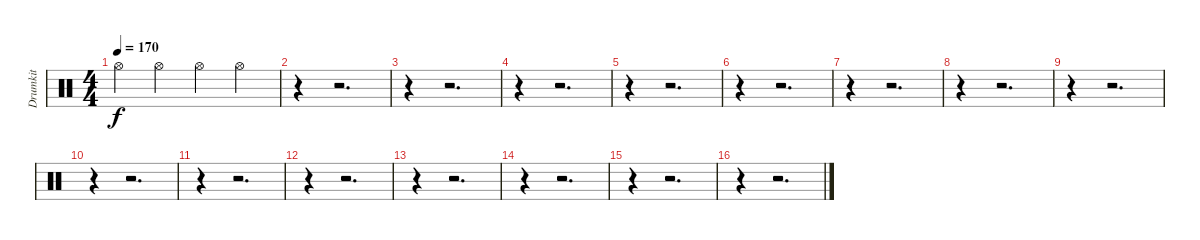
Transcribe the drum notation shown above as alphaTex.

\track ("Drumkit" "Drumkit") {instrument percussion}
\staff {score}
\articulation defaults
\ts (4 4)
\tempo 170
\clef neutral
\ks c "Hi-Hat (open)".4{dy f} "Hi-Hat (open)".4 "Hi-Hat (open)".4 "Hi-Hat (open)".4
|
r.4 r.2{d} |
r.4 r.2{d} |
r.4 r.2{d} |
r.4 r.2{d} |
r.4 r.2{d} |
r.4 r.2{d} |
r.4 r.2{d} |
r.4 r.2{d} |
r.4 r.2{d} |
r.4 r.2{d} |
r.4 r.2{d} |
r.4 r.2{d} |
r.4 r.2{d} |
r.4 r.2{d} |
r.4 r.2{d}
